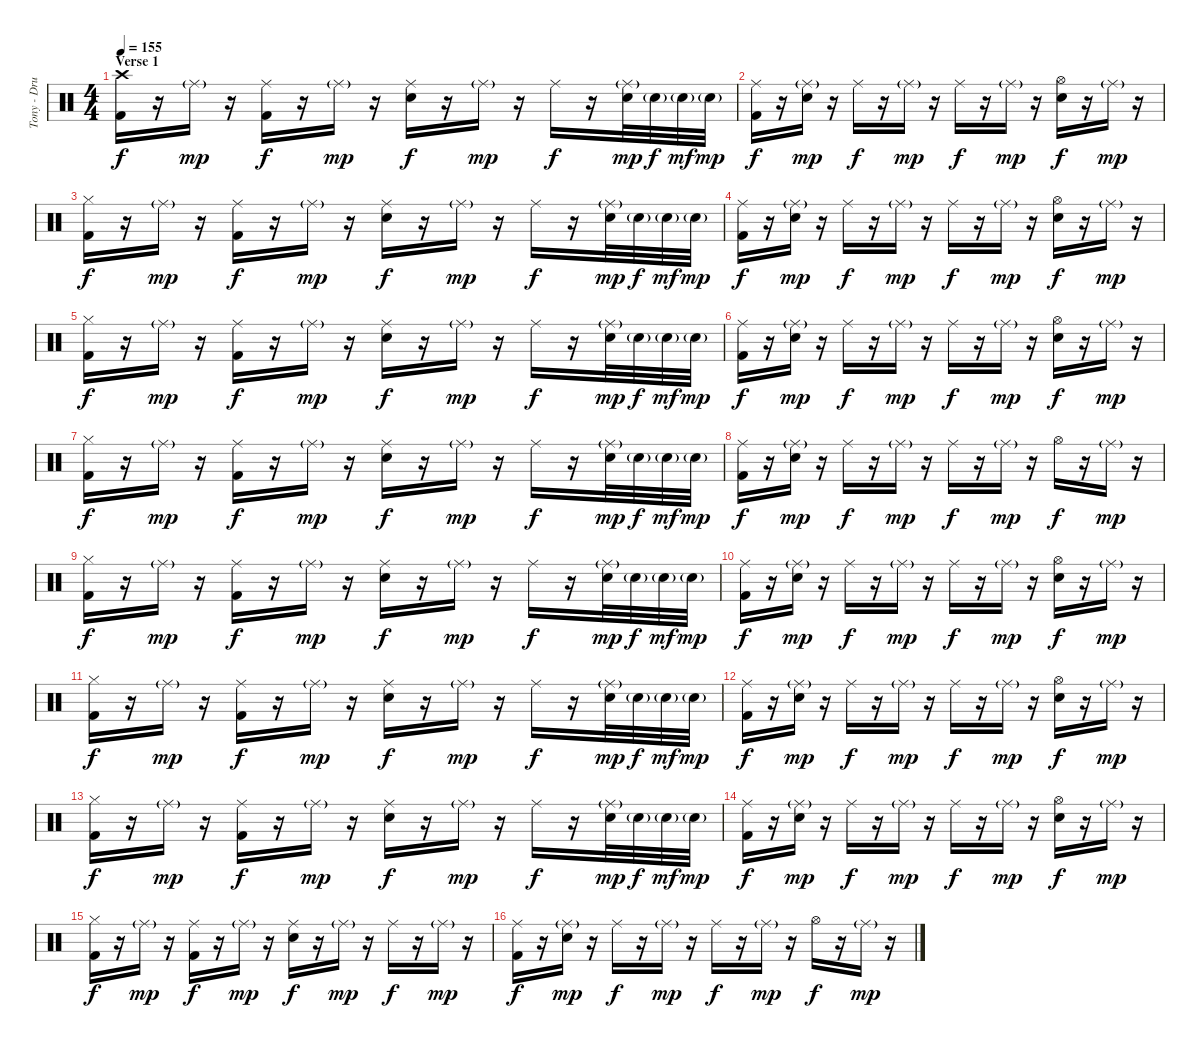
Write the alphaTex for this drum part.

\track ("Tony - Drums" "Tony - Dru") {instrument percussion}
\staff {score}
\articulation defaults
\ts (4 4)
\section ("" "Verse 1")
\tempo 155
\clef neutral
\ks c
("Crash high (hit)" "Kick (hit) 2").16{dy f} r.16 "Ride (middle)"{g}.16{dy mp} r.16 ("Ride (middle)" "Kick (hit) 2").16{dy f} r.16 "Ride (middle)"{g}.16{dy mp} r.16 ("Ride (middle)" "Electric Snare (hit)").16{dy f} r.16 "Ride (middle)"{g}.16{dy mp} r.16 "Ride (middle)".16{dy f} r.16 ("Ride (middle)"{g} "Electric Snare (hit)").32{dy mp} "Electric Snare (hit)"{g}.32{dy f} "Electric Snare (hit)"{g}.32{dy mf} "Electric Snare (hit)"{g}.32{dy mp} |
("Ride (middle)" "Kick (hit) 2").16{dy f} r.16 ("Ride (middle)"{g} "Electric Snare (hit)").16{dy mp} r.16 "Ride (middle)".16{dy f} r.16 "Ride (middle)"{g}.16{dy mp} r.16 "Ride (middle)".16{dy f} r.16 "Ride (middle)"{g}.16{dy mp} r.16 ("Hi-Hat (open)" "Electric Snare (hit)").16{dy f} r.16 "Ride (middle)"{g}.16{dy mp} r.16 |
("Hi-Hat (closed)" "Kick (hit) 2").16{dy f} r.16 "Ride (middle)"{g}.16{dy mp} r.16 ("Ride (middle)" "Kick (hit) 2").16{dy f} r.16 "Ride (middle)"{g}.16{dy mp} r.16 ("Ride (middle)" "Electric Snare (hit)").16{dy f} r.16 "Ride (middle)"{g}.16{dy mp} r.16 "Ride (middle)".16{dy f} r.16 ("Ride (middle)"{g} "Electric Snare (hit)").32{dy mp} "Electric Snare (hit)"{g}.32{dy f} "Electric Snare (hit)"{g}.32{dy mf} "Electric Snare (hit)"{g}.32{dy mp} |
("Ride (middle)" "Kick (hit) 2").16{dy f} r.16 ("Ride (middle)"{g} "Electric Snare (hit)").16{dy mp} r.16 "Ride (middle)".16{dy f} r.16 "Ride (middle)"{g}.16{dy mp} r.16 "Ride (middle)".16{dy f} r.16 "Ride (middle)"{g}.16{dy mp} r.16 ("Hi-Hat (open)" "Electric Snare (hit)").16{dy f} r.16 "Ride (middle)"{g}.16{dy mp} r.16 |
("Hi-Hat (closed)" "Kick (hit) 2").16{dy f} r.16 "Ride (middle)"{g}.16{dy mp} r.16 ("Ride (middle)" "Kick (hit) 2").16{dy f} r.16 "Ride (middle)"{g}.16{dy mp} r.16 ("Ride (middle)" "Electric Snare (hit)").16{dy f} r.16 "Ride (middle)"{g}.16{dy mp} r.16 "Ride (middle)".16{dy f} r.16 ("Ride (middle)"{g} "Electric Snare (hit)").32{dy mp} "Electric Snare (hit)"{g}.32{dy f} "Electric Snare (hit)"{g}.32{dy mf} "Electric Snare (hit)"{g}.32{dy mp} |
("Ride (middle)" "Kick (hit) 2").16{dy f} r.16 ("Ride (middle)"{g} "Electric Snare (hit)").16{dy mp} r.16 "Ride (middle)".16{dy f} r.16 "Ride (middle)"{g}.16{dy mp} r.16 "Ride (middle)".16{dy f} r.16 "Ride (middle)"{g}.16{dy mp} r.16 ("Hi-Hat (open)" "Electric Snare (hit)").16{dy f} r.16 "Ride (middle)"{g}.16{dy mp} r.16 |
("Hi-Hat (closed)" "Kick (hit) 2").16{dy f} r.16 "Ride (middle)"{g}.16{dy mp} r.16 ("Ride (middle)" "Kick (hit) 2").16{dy f} r.16 "Ride (middle)"{g}.16{dy mp} r.16 ("Ride (middle)" "Electric Snare (hit)").16{dy f} r.16 "Ride (middle)"{g}.16{dy mp} r.16 "Ride (middle)".16{dy f} r.16 ("Ride (middle)"{g} "Electric Snare (hit)").32{dy mp} "Electric Snare (hit)"{g}.32{dy f} "Electric Snare (hit)"{g}.32{dy mf} "Electric Snare (hit)"{g}.32{dy mp} |
("Ride (middle)" "Kick (hit) 2").16{dy f} r.16 ("Ride (middle)"{g} "Electric Snare (hit)").16{dy mp} r.16 "Ride (middle)".16{dy f} r.16 "Ride (middle)"{g}.16{dy mp} r.16 "Ride (middle)".16{dy f} r.16 "Ride (middle)"{g}.16{dy mp} r.16 "Hi-Hat (open)".16{dy f} r.16 "Ride (middle)"{g}.16{dy mp} r.16 |
("Hi-Hat (closed)" "Kick (hit) 2").16{dy f} r.16 "Ride (middle)"{g}.16{dy mp} r.16 ("Ride (middle)" "Kick (hit) 2").16{dy f} r.16 "Ride (middle)"{g}.16{dy mp} r.16 ("Ride (middle)" "Electric Snare (hit)").16{dy f} r.16 "Ride (middle)"{g}.16{dy mp} r.16 "Ride (middle)".16{dy f} r.16 ("Ride (middle)"{g} "Electric Snare (hit)").32{dy mp} "Electric Snare (hit)"{g}.32{dy f} "Electric Snare (hit)"{g}.32{dy mf} "Electric Snare (hit)"{g}.32{dy mp} |
("Ride (middle)" "Kick (hit) 2").16{dy f} r.16 ("Ride (middle)"{g} "Electric Snare (hit)").16{dy mp} r.16 "Ride (middle)".16{dy f} r.16 "Ride (middle)"{g}.16{dy mp} r.16 "Ride (middle)".16{dy f} r.16 "Ride (middle)"{g}.16{dy mp} r.16 ("Hi-Hat (open)" "Electric Snare (hit)").16{dy f} r.16 "Ride (middle)"{g}.16{dy mp} r.16 |
("Hi-Hat (closed)" "Kick (hit) 2").16{dy f} r.16 "Ride (middle)"{g}.16{dy mp} r.16 ("Ride (middle)" "Kick (hit) 2").16{dy f} r.16 "Ride (middle)"{g}.16{dy mp} r.16 ("Ride (middle)" "Electric Snare (hit)").16{dy f} r.16 "Ride (middle)"{g}.16{dy mp} r.16 "Ride (middle)".16{dy f} r.16 ("Ride (middle)"{g} "Electric Snare (hit)").32{dy mp} "Electric Snare (hit)"{g}.32{dy f} "Electric Snare (hit)"{g}.32{dy mf} "Electric Snare (hit)"{g}.32{dy mp} |
("Ride (middle)" "Kick (hit) 2").16{dy f} r.16 ("Ride (middle)"{g} "Electric Snare (hit)").16{dy mp} r.16 "Ride (middle)".16{dy f} r.16 "Ride (middle)"{g}.16{dy mp} r.16 "Ride (middle)".16{dy f} r.16 "Ride (middle)"{g}.16{dy mp} r.16 ("Hi-Hat (open)" "Electric Snare (hit)").16{dy f} r.16 "Ride (middle)"{g}.16{dy mp} r.16 |
("Hi-Hat (closed)" "Kick (hit) 2").16{dy f} r.16 "Ride (middle)"{g}.16{dy mp} r.16 ("Ride (middle)" "Kick (hit) 2").16{dy f} r.16 "Ride (middle)"{g}.16{dy mp} r.16 ("Ride (middle)" "Electric Snare (hit)").16{dy f} r.16 "Ride (middle)"{g}.16{dy mp} r.16 "Ride (middle)".16{dy f} r.16 ("Ride (middle)"{g} "Electric Snare (hit)").32{dy mp} "Electric Snare (hit)"{g}.32{dy f} "Electric Snare (hit)"{g}.32{dy mf} "Electric Snare (hit)"{g}.32{dy mp} |
("Ride (middle)" "Kick (hit) 2").16{dy f} r.16 ("Ride (middle)"{g} "Electric Snare (hit)").16{dy mp} r.16 "Ride (middle)".16{dy f} r.16 "Ride (middle)"{g}.16{dy mp} r.16 "Ride (middle)".16{dy f} r.16 "Ride (middle)"{g}.16{dy mp} r.16 ("Hi-Hat (open)" "Electric Snare (hit)").16{dy f} r.16 "Ride (middle)"{g}.16{dy mp} r.16 |
("Hi-Hat (closed)" "Kick (hit) 2").16{dy f} r.16 "Ride (middle)"{g}.16{dy mp} r.16 ("Ride (middle)" "Kick (hit) 2").16{dy f} r.16 "Ride (middle)"{g}.16{dy mp} r.16 ("Ride (middle)" "Electric Snare (hit)").16{dy f} r.16 "Ride (middle)"{g}.16{dy mp} r.16 "Ride (middle)".16{dy f} r.16 "Ride (middle)"{g}.16{dy mp} r.16 |
("Ride (middle)" "Kick (hit) 2").16{dy f} r.16 ("Ride (middle)"{g} "Electric Snare (hit)").16{dy mp} r.16 "Ride (middle)".16{dy f} r.16 "Ride (middle)"{g}.16{dy mp} r.16 "Ride (middle)".16{dy f} r.16 "Ride (middle)"{g}.16{dy mp} r.16 "Hi-Hat (open)".16{dy f} r.16 "Ride (middle)"{g}.16{dy mp} r.16
